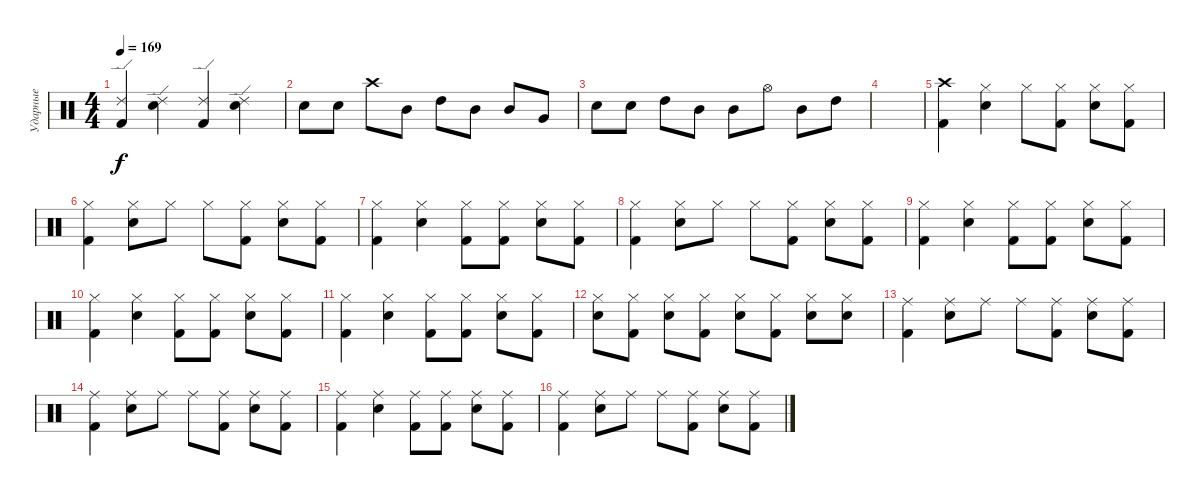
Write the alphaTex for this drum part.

\track ("Ударные" "Ударные") {instrument percussion}
\staff {score}
\articulation defaults
\ts (4 4)
\tempo 169
\clef neutral
\ks c
("Kick (hit) 2" "Ride (edge) 2").4{dy f} ("Electric Snare (hit)" "Ride (edge) 2").4 ("Kick (hit) 2" "Ride (edge) 2").4 ("Electric Snare (hit)" "Ride (edge) 2").4 |
"Electric Snare (hit)".8 "Electric Snare (hit)".8 "Crash high (hit)".8 "Mid Tom (hit)".8 "High Tom (hit)".8 "Mid Tom (hit)".8 "Mid Tom (hit)".8 "Very Low Tom (hit)".8 |
"Electric Snare (hit)".8 "Electric Snare (hit)".8 "High Tom (hit)".8 "Mid Tom (hit)".8 "Mid Tom (hit)".8 "Hi-Hat (open)".8 "Mid Tom (hit)".8 "High Tom (hit)".8 |
|
("Kick (hit) 2" "Crash high (hit)").4 ("Electric Snare (hit)" "Hi-Hat (closed)").4 "Hi-Hat (closed)".8 ("Kick (hit) 2" "Hi-Hat (closed)").8 ("Electric Snare (hit)" "Hi-Hat (closed)").8 ("Kick (hit) 2" "Hi-Hat (closed)").8 |
("Kick (hit) 2" "Hi-Hat (closed)").4 ("Electric Snare (hit)" "Hi-Hat (closed)").8 "Hi-Hat (closed)".8 "Hi-Hat (closed)".8 ("Kick (hit) 2" "Hi-Hat (closed)").8 ("Electric Snare (hit)" "Hi-Hat (closed)").8 ("Kick (hit) 2" "Hi-Hat (closed)").8 |
("Kick (hit) 2" "Hi-Hat (closed)").4 ("Electric Snare (hit)" "Hi-Hat (closed)").4 ("Kick (hit) 2" "Hi-Hat (closed)").8 ("Kick (hit) 2" "Hi-Hat (closed)").8 ("Electric Snare (hit)" "Hi-Hat (closed)").8 ("Kick (hit) 2" "Hi-Hat (closed)").8 |
("Kick (hit) 2" "Hi-Hat (closed)").4 ("Electric Snare (hit)" "Hi-Hat (closed)").8 "Hi-Hat (closed)".8 "Hi-Hat (closed)".8 ("Kick (hit) 2" "Hi-Hat (closed)").8 ("Electric Snare (hit)" "Hi-Hat (closed)").8 ("Kick (hit) 2" "Hi-Hat (closed)").8 |
("Kick (hit) 2" "Hi-Hat (closed)").4 ("Electric Snare (hit)" "Hi-Hat (closed)").4 ("Kick (hit) 2" "Hi-Hat (closed)").8 ("Kick (hit) 2" "Hi-Hat (closed)").8 ("Electric Snare (hit)" "Hi-Hat (closed)").8 ("Kick (hit) 2" "Hi-Hat (closed)").8 |
("Kick (hit) 2" "Hi-Hat (closed)").4 ("Electric Snare (hit)" "Hi-Hat (closed)").4 ("Kick (hit) 2" "Hi-Hat (closed)").8 ("Kick (hit) 2" "Hi-Hat (closed)").8 ("Electric Snare (hit)" "Hi-Hat (closed)").8 ("Kick (hit) 2" "Hi-Hat (closed)").8 |
("Kick (hit) 2" "Hi-Hat (closed)").4 ("Electric Snare (hit)" "Hi-Hat (closed)").4 ("Kick (hit) 2" "Hi-Hat (closed)").8 ("Kick (hit) 2" "Hi-Hat (closed)").8 ("Electric Snare (hit)" "Hi-Hat (closed)").8 ("Kick (hit) 2" "Hi-Hat (closed)").8 |
("Electric Snare (hit)" "Hi-Hat (closed)").8 ("Kick (hit) 2" "Hi-Hat (closed)").8 ("Electric Snare (hit)" "Hi-Hat (closed)").8 ("Kick (hit) 2" "Hi-Hat (closed)").8 ("Electric Snare (hit)" "Hi-Hat (closed)").8 ("Kick (hit) 2" "Hi-Hat (closed)").8 ("Electric Snare (hit)" "Hi-Hat (closed)").8 ("Electric Snare (hit)" "Hi-Hat (closed)").8 |
("Kick (hit) 2" "Ride (middle)").4 ("Electric Snare (hit)" "Ride (middle)").8 "Ride (middle)".8 "Ride (middle)".8 ("Kick (hit) 2" "Ride (middle)").8 ("Electric Snare (hit)" "Ride (middle)").8 ("Kick (hit) 2" "Ride (middle)").8 |
("Kick (hit) 2" "Ride (middle)").4 ("Electric Snare (hit)" "Ride (middle)").8 "Ride (middle)".8 "Ride (middle)".8 ("Kick (hit) 2" "Ride (middle)").8 ("Electric Snare (hit)" "Ride (middle)").8 ("Kick (hit) 2" "Ride (middle)").8 |
("Kick (hit) 2" "Ride (middle)").4 ("Electric Snare (hit)" "Ride (middle)").4 ("Kick (hit) 2" "Ride (middle)").8 ("Kick (hit) 2" "Ride (middle)").8 ("Electric Snare (hit)" "Ride (middle)").8 ("Kick (hit) 2" "Ride (middle)").8 |
("Kick (hit) 2" "Ride (middle)").4 ("Electric Snare (hit)" "Ride (middle)").8 "Ride (middle)".8 "Ride (middle)".8 ("Kick (hit) 2" "Ride (middle)").8 ("Electric Snare (hit)" "Ride (middle)").8 ("Kick (hit) 2" "Ride (middle)").8
